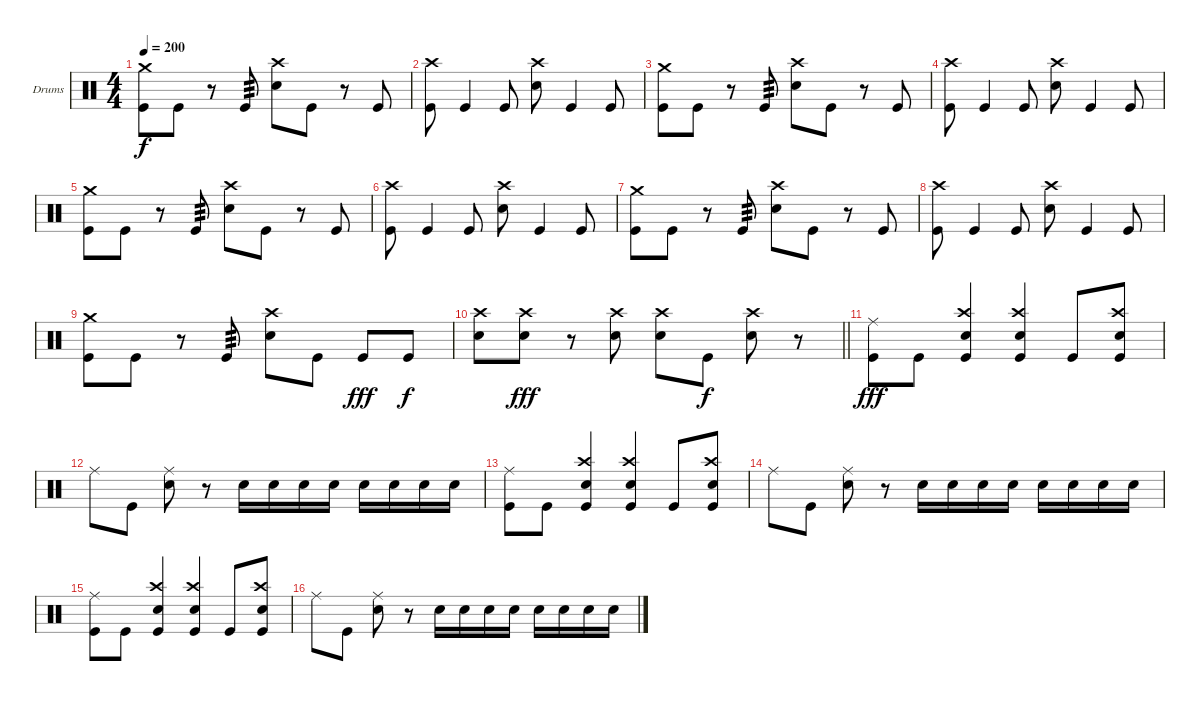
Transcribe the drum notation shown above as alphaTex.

\bracketExtendMode groupsimilarinstruments
\firstSystemTrackNameOrientation horizontal
\otherSystemsTrackNameOrientation horizontal
\track ("Drumkit" "Drums") {instrument percussion}
\staff {score}
\articulation defaults
\ts (4 4)
\tempo 200
\clef neutral
\ks c
("Crash medium (hit)" "Kick (hit)").8{dy f} "Kick (hit)".8 r.8 "Kick (hit)".8{tp 3} ("Crash high (hit)" "Snare (hit) 2").8 "Kick (hit)".8 r.8 "Kick (hit)".8 |
("Crash high (hit)" "Kick (hit)").8 "Kick (hit)".4 "Kick (hit)".8 ("Crash high (hit)" "Snare (hit) 2").8 "Kick (hit)".4 "Kick (hit)".8 |
("Crash medium (hit)" "Kick (hit)").8 "Kick (hit)".8 r.8 "Kick (hit)".8{tp 3} ("Crash high (hit)" "Snare (hit) 2").8 "Kick (hit)".8 r.8 "Kick (hit)".8 |
("Crash high (hit)" "Kick (hit)").8 "Kick (hit)".4 "Kick (hit)".8 ("Crash high (hit)" "Snare (hit) 2").8 "Kick (hit)".4 "Kick (hit)".8 |
("Crash medium (hit)" "Kick (hit)").8 "Kick (hit)".8 r.8 "Kick (hit)".8{tp 3} ("Crash high (hit)" "Snare (hit) 2").8 "Kick (hit)".8 r.8 "Kick (hit)".8 |
("Crash high (hit)" "Kick (hit)").8 "Kick (hit)".4 "Kick (hit)".8 ("Crash high (hit)" "Snare (hit) 2").8 "Kick (hit)".4 "Kick (hit)".8 |
("Crash medium (hit)" "Kick (hit)").8 "Kick (hit)".8 r.8 "Kick (hit)".8{tp 3} ("Crash high (hit)" "Snare (hit) 2").8 "Kick (hit)".8 r.8 "Kick (hit)".8 |
("Crash high (hit)" "Kick (hit)").8 "Kick (hit)".4 "Kick (hit)".8 ("Crash high (hit)" "Snare (hit) 2").8 "Kick (hit)".4 "Kick (hit)".8 |
("Crash medium (hit)" "Kick (hit)").8 "Kick (hit)".8 r.8 "Kick (hit)".8{tp 3} ("Crash high (hit)" "Snare (hit) 2").8 "Kick (hit)".8 "Kick (hit)".8{dy fff} "Kick (hit)".8{dy f} |
\barLineRight lightlight
("Crash high (hit)" "Snare (hit) 2").8 ("Crash high (hit)" "Snare (hit) 2").8{dy fff} r.8 ("Crash high (hit)" "Snare (hit) 2").8 ("Crash high (hit)" "Snare (hit) 2").8 "Kick (hit)".8{dy f} ("Crash high (hit)" "Snare (hit) 2").8 r.8 |
\section ("" "")
("Ride (middle)" "Kick (hit)").8{dy fff} "Kick (hit)".8 ("Crash high (hit)" "Snare (hit) 2" "Kick (hit)").4 ("Crash high (hit)" "Snare (hit) 2" "Kick (hit)").4 "Kick (hit)".8 ("Crash high (hit)" "Snare (hit) 2" "Kick (hit)").8 |
"Ride (middle)".8 "Kick (hit)".8 ("Ride (middle)" "Snare (hit) 2").8 r.8 "Snare (hit) 2".16 "Snare (hit) 2".16 "Snare (hit) 2".16 "Snare (hit) 2".16 "Snare (hit) 2".16 "Snare (hit) 2".16 "Snare (hit) 2".16 "Snare (hit) 2".16 |
("Ride (middle)" "Kick (hit)").8 "Kick (hit)".8 ("Crash high (hit)" "Snare (hit) 2" "Kick (hit)").4 ("Crash high (hit)" "Snare (hit) 2" "Kick (hit)").4 "Kick (hit)".8 ("Crash high (hit)" "Snare (hit) 2" "Kick (hit)").8 |
"Ride (middle)".8 "Kick (hit)".8 ("Ride (middle)" "Snare (hit) 2").8 r.8 "Snare (hit) 2".16 "Snare (hit) 2".16 "Snare (hit) 2".16 "Snare (hit) 2".16 "Snare (hit) 2".16 "Snare (hit) 2".16 "Snare (hit) 2".16 "Snare (hit) 2".16 |
("Ride (middle)" "Kick (hit)").8 "Kick (hit)".8 ("Crash high (hit)" "Snare (hit) 2" "Kick (hit)").4 ("Crash high (hit)" "Snare (hit) 2" "Kick (hit)").4 "Kick (hit)".8 ("Crash high (hit)" "Snare (hit) 2" "Kick (hit)").8 |
"Ride (middle)".8 "Kick (hit)".8 ("Ride (middle)" "Snare (hit) 2").8 r.8 "Snare (hit) 2".16 "Snare (hit) 2".16 "Snare (hit) 2".16 "Snare (hit) 2".16 "Snare (hit) 2".16 "Snare (hit) 2".16 "Snare (hit) 2".16 "Snare (hit) 2".16
